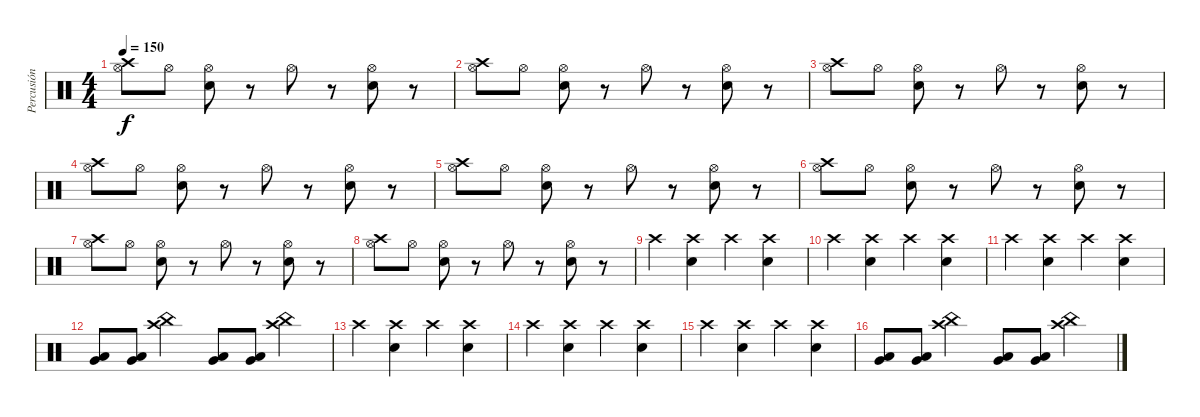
\track ("Percusión" "Percusión") {instrument percussion}
\staff {score}
\articulation defaults
\ts (4 4)
\tempo 150
\clef neutral
\ks c
("Crash high (hit)" "Hi-Hat (open)").8{dy f} "Hi-Hat (open)".8 ("Hi-Hat (open)" "Snare (hit) 2").8 r.8 "Hi-Hat (open)".8 r.8 ("Hi-Hat (open)" "Snare (hit) 2").8 r.8 |
("Crash high (hit)" "Hi-Hat (open)").8 "Hi-Hat (open)".8 ("Hi-Hat (open)" "Snare (hit) 2").8 r.8 "Hi-Hat (open)".8 r.8 ("Hi-Hat (open)" "Snare (hit) 2").8 r.8 |
("Crash high (hit)" "Hi-Hat (open)").8 "Hi-Hat (open)".8 ("Hi-Hat (open)" "Snare (hit) 2").8 r.8 "Hi-Hat (open)".8 r.8 ("Hi-Hat (open)" "Snare (hit) 2").8 r.8 |
("Crash high (hit)" "Hi-Hat (open)").8 "Hi-Hat (open)".8 ("Hi-Hat (open)" "Snare (hit) 2").8 r.8 "Hi-Hat (open)".8 r.8 ("Hi-Hat (open)" "Snare (hit) 2").8 r.8 |
("Crash high (hit)" "Hi-Hat (open)").8 "Hi-Hat (open)".8 ("Hi-Hat (open)" "Snare (hit) 2").8 r.8 "Hi-Hat (open)".8 r.8 ("Hi-Hat (open)" "Snare (hit) 2").8 r.8 |
("Crash high (hit)" "Hi-Hat (open)").8 "Hi-Hat (open)".8 ("Hi-Hat (open)" "Snare (hit) 2").8 r.8 "Hi-Hat (open)".8 r.8 ("Hi-Hat (open)" "Snare (hit) 2").8 r.8 |
("Crash high (hit)" "Hi-Hat (open)").8 "Hi-Hat (open)".8 ("Hi-Hat (open)" "Snare (hit) 2").8 r.8 "Hi-Hat (open)".8 r.8 ("Hi-Hat (open)" "Snare (hit) 2").8 r.8 |
("Crash high (hit)" "Hi-Hat (open)").8 "Hi-Hat (open)".8 ("Hi-Hat (open)" "Snare (hit) 2").8 r.8 "Hi-Hat (open)".8 r.8 ("Hi-Hat (open)" "Snare (hit) 2").8 r.8 |
"Crash high (hit)".4 ("Snare (hit) 2" "Crash high (hit)").4 "Crash high (hit)".4 ("Snare (hit) 2" "Crash high (hit)").4 |
"Crash high (hit)".4 ("Snare (hit) 2" "Crash high (hit)").4 "Crash high (hit)".4 ("Snare (hit) 2" "Crash high (hit)").4 |
"Crash high (hit)".4 ("Snare (hit) 2" "Crash high (hit)").4 "Crash high (hit)".4 ("Snare (hit) 2" "Crash high (hit)").4 |
("Low Tom (hit)" "Very Low Tom (hit)").8 ("Low Tom (hit)" "Very Low Tom (hit)").8 ("China (hit)" "Crash high (hit)").4 ("Low Tom (hit)" "Very Low Tom (hit)").8 ("Low Tom (hit)" "Very Low Tom (hit)").8 ("China (hit)" "Crash high (hit)").4 |
"Crash high (hit)".4 ("Snare (hit) 2" "Crash high (hit)").4 "Crash high (hit)".4 ("Snare (hit) 2" "Crash high (hit)").4 |
"Crash high (hit)".4 ("Snare (hit) 2" "Crash high (hit)").4 "Crash high (hit)".4 ("Snare (hit) 2" "Crash high (hit)").4 |
"Crash high (hit)".4 ("Snare (hit) 2" "Crash high (hit)").4 "Crash high (hit)".4 ("Snare (hit) 2" "Crash high (hit)").4 |
("Low Tom (hit)" "Very Low Tom (hit)").8 ("Low Tom (hit)" "Very Low Tom (hit)").8 ("China (hit)" "Crash high (hit)").4 ("Low Tom (hit)" "Very Low Tom (hit)").8 ("Low Tom (hit)" "Very Low Tom (hit)").8 ("China (hit)" "Crash high (hit)").4
